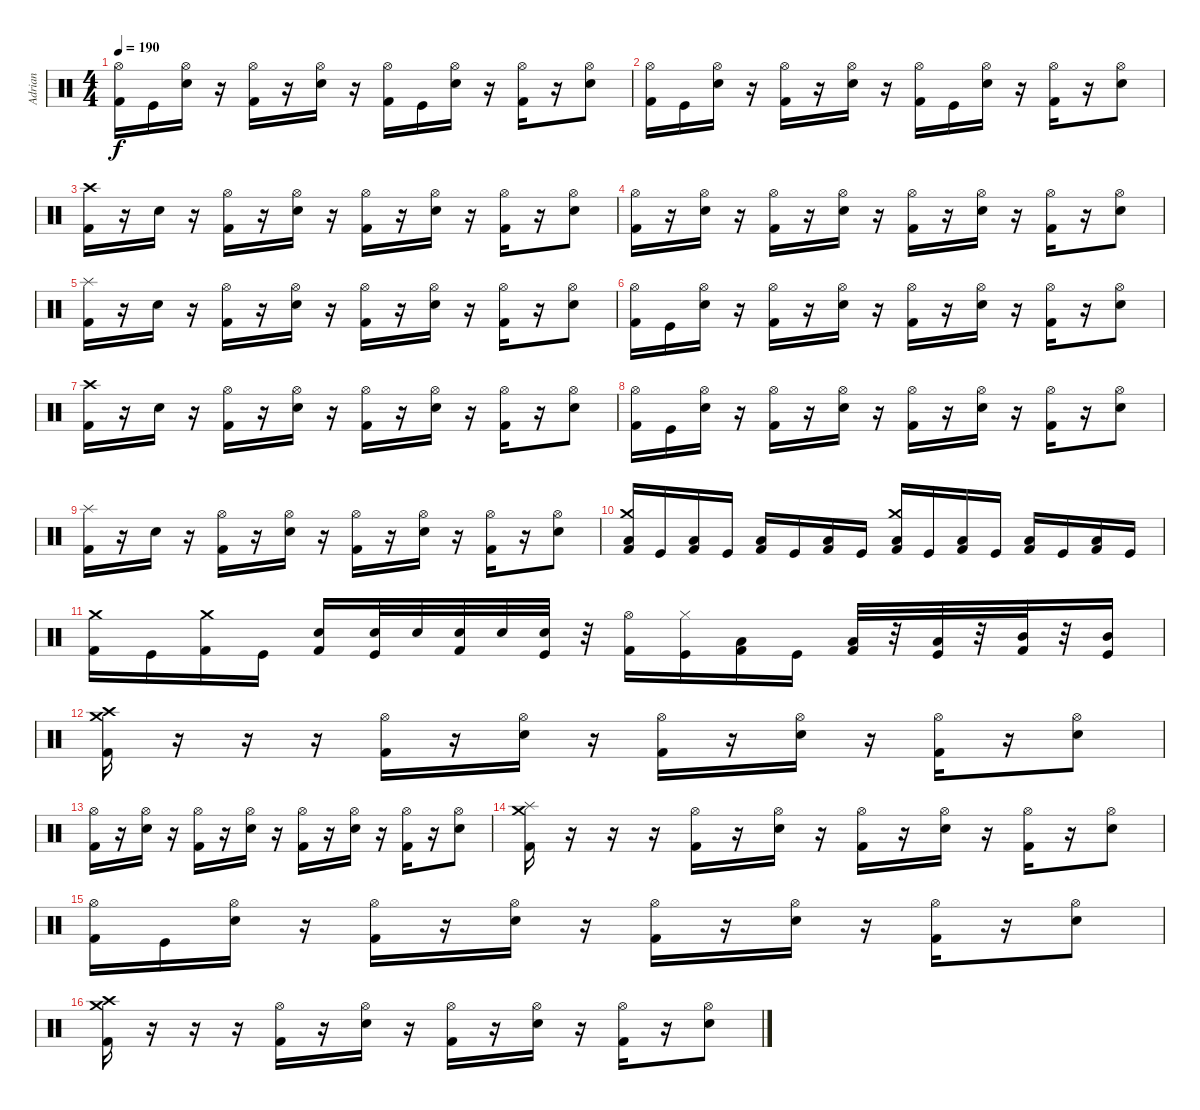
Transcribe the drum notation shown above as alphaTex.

\track ("Adrian" "Adrian") {instrument percussion}
\staff {score}
\articulation defaults
\ts (4 4)
\tempo 190
\clef neutral
\ks c
("Hi-Hat (open)" "Kick (hit) 2").16{dy f} "Kick (hit)".16 ("Hi-Hat (open)" "Electric Snare (hit)").16 r.16 ("Hi-Hat (open)" "Kick (hit) 2").16 r.16 ("Hi-Hat (open)" "Electric Snare (hit)").16 r.16 ("Hi-Hat (open)" "Kick (hit) 2").16 "Kick (hit)".16 ("Hi-Hat (open)" "Electric Snare (hit)").16 r.16 ("Hi-Hat (open)" "Kick (hit) 2").16 r.16 ("Hi-Hat (open)" "Electric Snare (hit)").8 |
("Hi-Hat (open)" "Kick (hit) 2").16 "Kick (hit)".16 ("Hi-Hat (open)" "Electric Snare (hit)").16 r.16 ("Hi-Hat (open)" "Kick (hit) 2").16 r.16 ("Hi-Hat (open)" "Electric Snare (hit)").16 r.16 ("Hi-Hat (open)" "Kick (hit) 2").16 "Kick (hit)".16 ("Hi-Hat (open)" "Electric Snare (hit)").16 r.16 ("Hi-Hat (open)" "Kick (hit) 2").16 r.16 ("Hi-Hat (open)" "Electric Snare (hit)").8 |
("Crash high (hit)" "Kick (hit) 2").16 r.16 "Electric Snare (hit)".16 r.16 ("Hi-Hat (open)" "Kick (hit) 2").16 r.16 ("Hi-Hat (open)" "Electric Snare (hit)").16 r.16 ("Hi-Hat (open)" "Kick (hit) 2").16 r.16 ("Hi-Hat (open)" "Electric Snare (hit)").16 r.16 ("Hi-Hat (open)" "Kick (hit) 2").16 r.16 ("Hi-Hat (open)" "Electric Snare (hit)").8 |
("Hi-Hat (open)" "Kick (hit) 2").16 r.16 ("Hi-Hat (open)" "Electric Snare (hit)").16 r.16 ("Hi-Hat (open)" "Kick (hit) 2").16 r.16 ("Hi-Hat (open)" "Electric Snare (hit)").16 r.16 ("Hi-Hat (open)" "Kick (hit) 2").16 r.16 ("Hi-Hat (open)" "Electric Snare (hit)").16 r.16 ("Hi-Hat (open)" "Kick (hit) 2").16 r.16 ("Hi-Hat (open)" "Electric Snare (hit)").8 |
("Splash (hit)" "Kick (hit) 2").16 r.16 "Electric Snare (hit)".16 r.16 ("Hi-Hat (open)" "Kick (hit) 2").16 r.16 ("Hi-Hat (open)" "Electric Snare (hit)").16 r.16 ("Hi-Hat (open)" "Kick (hit) 2").16 r.16 ("Hi-Hat (open)" "Electric Snare (hit)").16 r.16 ("Hi-Hat (open)" "Kick (hit) 2").16 r.16 ("Hi-Hat (open)" "Electric Snare (hit)").8 |
("Hi-Hat (open)" "Kick (hit) 2").16 "Kick (hit)".16 ("Hi-Hat (open)" "Electric Snare (hit)").16 r.16 ("Hi-Hat (open)" "Kick (hit) 2").16 r.16 ("Hi-Hat (open)" "Electric Snare (hit)").16 r.16 ("Hi-Hat (open)" "Kick (hit) 2").16 r.16 ("Hi-Hat (open)" "Electric Snare (hit)").16 r.16 ("Hi-Hat (open)" "Kick (hit) 2").16 r.16 ("Hi-Hat (open)" "Electric Snare (hit)").8 |
("Crash high (hit)" "Kick (hit) 2").16 r.16 "Electric Snare (hit)".16 r.16 ("Hi-Hat (open)" "Kick (hit) 2").16 r.16 ("Hi-Hat (open)" "Electric Snare (hit)").16 r.16 ("Hi-Hat (open)" "Kick (hit) 2").16 r.16 ("Hi-Hat (open)" "Electric Snare (hit)").16 r.16 ("Hi-Hat (open)" "Kick (hit) 2").16 r.16 ("Hi-Hat (open)" "Electric Snare (hit)").8 |
("Hi-Hat (open)" "Kick (hit) 2").16 "Kick (hit)".16 ("Hi-Hat (open)" "Electric Snare (hit)").16 r.16 ("Hi-Hat (open)" "Kick (hit) 2").16 r.16 ("Hi-Hat (open)" "Electric Snare (hit)").16 r.16 ("Hi-Hat (open)" "Kick (hit) 2").16 r.16 ("Hi-Hat (open)" "Electric Snare (hit)").16 r.16 ("Hi-Hat (open)" "Kick (hit) 2").16 r.16 ("Hi-Hat (open)" "Electric Snare (hit)").8 |
("Splash (hit)" "Kick (hit) 2").16 r.16 "Electric Snare (hit)".16 r.16 ("Hi-Hat (open)" "Kick (hit) 2").16 r.16 ("Hi-Hat (open)" "Electric Snare (hit)").16 r.16 ("Hi-Hat (open)" "Kick (hit) 2").16 r.16 ("Hi-Hat (open)" "Electric Snare (hit)").16 r.16 ("Hi-Hat (open)" "Kick (hit) 2").16 r.16 ("Hi-Hat (open)" "Electric Snare (hit)").8 |
("Crash medium (hit)" "Low Tom (hit)" "Kick (hit) 2").16 "Kick (hit)".16 ("Low Tom (hit)" "Kick (hit) 2").16 "Kick (hit)".16 ("Low Tom (hit)" "Kick (hit) 2").16 "Kick (hit)".16 ("Low Tom (hit)" "Kick (hit) 2").16 "Kick (hit)".16 ("Crash medium (hit)" "Low Tom (hit)" "Kick (hit) 2").16 "Kick (hit)".16 ("Low Tom (hit)" "Kick (hit) 2").16 "Kick (hit)".16 ("Low Tom (hit)" "Kick (hit) 2").16 "Kick (hit)".16 ("Low Tom (hit)" "Kick (hit) 2").16 "Kick (hit)".16 |
("Crash medium (hit)" "Kick (hit) 2").16 "Kick (hit)".16 ("Crash medium (hit)" "Kick (hit) 2").16 "Kick (hit)".16 ("Electric Snare (hit)" "Kick (hit) 2").16 ("Electric Snare (hit)" "Kick (hit)").32 "Electric Snare (hit)".32 ("Electric Snare (hit)" "Kick (hit) 2").32 "Electric Snare (hit)".32 ("Electric Snare (hit)" "Kick (hit)").32 r.32 ("Hi-Hat (open)" "Kick (hit) 2").16 ("Hi-Hat (closed)" "Kick (hit)").16 ("Low Tom (hit)" "Kick (hit) 2").16 "Kick (hit)".16 ("Low Tom (hit)" "Kick (hit) 2").32 r.32 ("Low Tom (hit)" "Kick (hit)").32 r.32 ("Mid Tom (hit)" "Kick (hit) 2").32 r.32 ("Mid Tom (hit)" "Kick (hit)").16 |
("Crash high (hit)" "Crash medium (hit)" "Kick (hit) 2").16 r.16 r.16 r.16 ("Hi-Hat (open)" "Kick (hit) 2").16 r.16 ("Hi-Hat (open)" "Electric Snare (hit)").16 r.16 ("Hi-Hat (open)" "Kick (hit) 2").16 r.16 ("Hi-Hat (open)" "Electric Snare (hit)").16 r.16 ("Hi-Hat (open)" "Kick (hit) 2").16 r.16 ("Hi-Hat (open)" "Electric Snare (hit)").8 |
("Hi-Hat (open)" "Kick (hit) 2").16 r.16 ("Hi-Hat (open)" "Electric Snare (hit)").16 r.16 ("Hi-Hat (open)" "Kick (hit) 2").16 r.16 ("Hi-Hat (open)" "Electric Snare (hit)").16 r.16 ("Hi-Hat (open)" "Kick (hit) 2").16 r.16 ("Hi-Hat (open)" "Electric Snare (hit)").16 r.16 ("Hi-Hat (open)" "Kick (hit) 2").16 r.16 ("Hi-Hat (open)" "Electric Snare (hit)").8 |
("Splash (hit)" "Crash medium (hit)" "Kick (hit) 2").16 r.16 r.16 r.16 ("Hi-Hat (open)" "Kick (hit) 2").16 r.16 ("Hi-Hat (open)" "Electric Snare (hit)").16 r.16 ("Hi-Hat (open)" "Kick (hit) 2").16 r.16 ("Hi-Hat (open)" "Electric Snare (hit)").16 r.16 ("Hi-Hat (open)" "Kick (hit) 2").16 r.16 ("Hi-Hat (open)" "Electric Snare (hit)").8 |
("Hi-Hat (open)" "Kick (hit) 2").16 "Kick (hit)".16 ("Hi-Hat (open)" "Electric Snare (hit)").16 r.16 ("Hi-Hat (open)" "Kick (hit) 2").16 r.16 ("Hi-Hat (open)" "Electric Snare (hit)").16 r.16 ("Hi-Hat (open)" "Kick (hit) 2").16 r.16 ("Hi-Hat (open)" "Electric Snare (hit)").16 r.16 ("Hi-Hat (open)" "Kick (hit) 2").16 r.16 ("Hi-Hat (open)" "Electric Snare (hit)").8 |
("Crash high (hit)" "Crash medium (hit)" "Kick (hit) 2").16 r.16 r.16 r.16 ("Hi-Hat (open)" "Kick (hit) 2").16 r.16 ("Hi-Hat (open)" "Electric Snare (hit)").16 r.16 ("Hi-Hat (open)" "Kick (hit) 2").16 r.16 ("Hi-Hat (open)" "Electric Snare (hit)").16 r.16 ("Hi-Hat (open)" "Kick (hit) 2").16 r.16 ("Hi-Hat (open)" "Electric Snare (hit)").8
